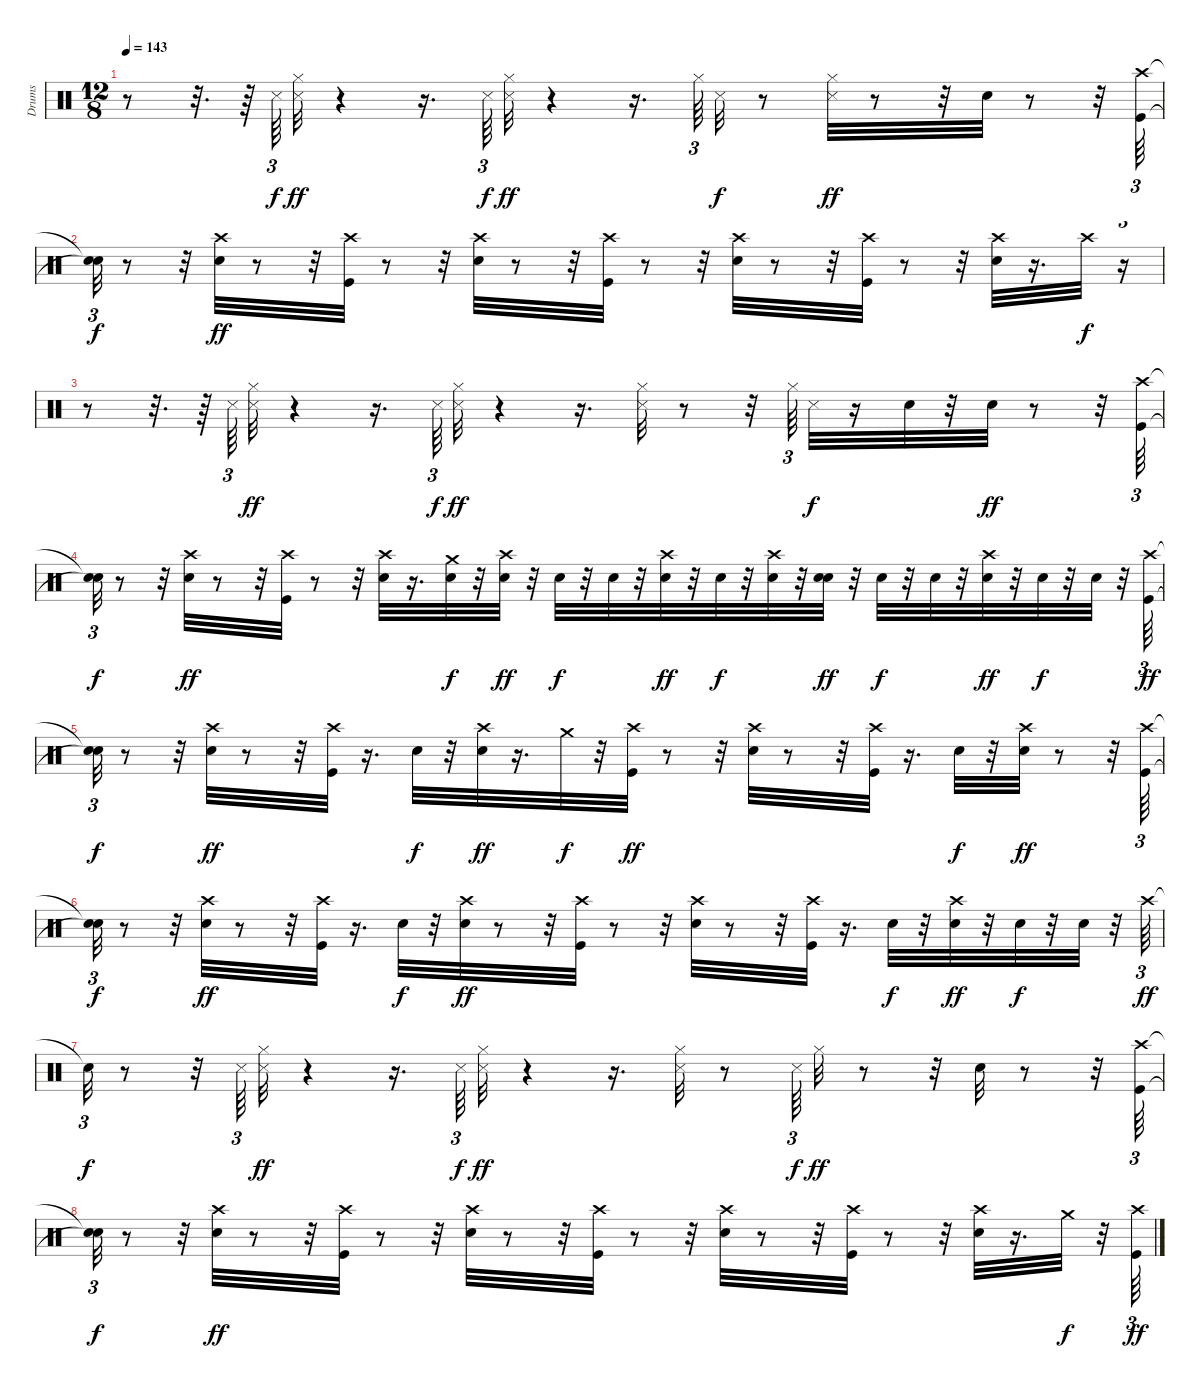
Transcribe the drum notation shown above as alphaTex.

\track ("Drums" "Drums") {instrument percussion}
\staff {score}
\articulation defaults
\ts (12 8)
\tempo 143
\clef neutral
\ks c
r.8{dy f} r.32{d} r.64 "Metronome (hit)".64{tu (3 2)} ("Metronome (hit)" "Hi-Hat (closed)").32{dy ff} r.4 r.16{d} "Metronome (hit)".64{tu (3 2) dy f} ("Metronome (hit)" "Hi-Hat (closed)").32{dy ff} r.4 r.16{d} "Hi-Hat (closed)".64{tu (3 2)} "Metronome (hit)".32{dy f} r.8 ("Metronome (hit)" "Hi-Hat (closed)").32{dy ff} r.8 r.32 "Snare (hit) 2".32 r.8 r.32 ("Crash high (hit)" "Kick (hit)").64{tu (3 2)} |
("Snare (hit)"{t} "Snare (hit)"{t}).32{tu (3 2) dy f} r.8 r.32 ("Crash high (hit)" "Snare (hit) 2").32{dy ff} r.8 r.32 ("Crash high (hit)" "Kick (hit)").32 r.8 r.32 ("Crash high (hit)" "Snare (hit) 2").32 r.8 r.32 ("Crash high (hit)" "Kick (hit)").32 r.8 r.32 ("Crash high (hit)" "Snare (hit) 2").32 r.8 r.32 ("Crash high (hit)" "Kick (hit)").32 r.8 r.32 ("Crash high (hit)" "Snare (hit) 2").32 r.16{d} "Crash high (hit)".32{dy f} r.16{tu (3 2)} |
r.8 r.32{d} r.64 "Metronome (hit)".64{tu (3 2)} ("Metronome (hit)" "Hi-Hat (closed)").32{dy ff} r.4 r.16{d} "Metronome (hit)".64{tu (3 2) dy f} ("Metronome (hit)" "Hi-Hat (closed)").32{dy ff} r.4 r.16{d} ("Metronome (hit)" "Hi-Hat (closed)").32 r.8 r.32 "Hi-Hat (closed)".64{tu (3 2)} "Metronome (hit)".32{dy f} r.16 "Snare (hit) 2".32 r.32 "Snare (hit) 2".32{dy ff} r.8 r.32 ("Crash high (hit)" "Kick (hit)").64{tu (3 2)} |
("Snare (hit)"{t} "Snare (hit)"{t}).32{tu (3 2) dy f} r.8 r.32 ("Crash high (hit)" "Snare (hit) 2").32{dy ff} r.8 r.32 ("Crash high (hit)" "Kick (hit)").32 r.8 r.32 ("Crash high (hit)" "Snare (hit) 2").32 r.16{d} ("Crash medium (hit)" "Snare (hit) 2").32{dy f} r.32 ("Electric Snare (hit)" "Crash high (hit)").32{dy ff} r.32 "Snare (hit) 2".32{dy f} r.32 "Snare (hit) 2".32 r.32 ("Snare (hit) 2" "Crash high (hit)").32{dy ff} r.32 "Snare (hit) 2".32{dy f} r.32 ("Snare (hit) 2" "Crash high (hit)").32 r.32 ("Snare (hit) 2" "Electric Snare (hit)").32{dy ff} r.32 "Snare (hit) 2".32{dy f} r.32 "Snare (hit) 2".32 r.32 ("Snare (hit) 2" "Crash high (hit)").32{dy ff} r.32 "Snare (hit) 2".32{dy f} r.32 "Snare (hit) 2".32 r.32 ("Kick (hit)" "Crash high (hit)").64{tu (3 2) dy ff} |
("Snare (hit)"{t} "Snare (hit)"{t}).32{tu (3 2) dy f} r.8 r.32 ("Snare (hit) 2" "Crash high (hit)").32{dy ff} r.8 r.32 ("Kick (hit)" "Crash high (hit)").32 r.16{d} "Snare (hit) 2".32{dy f} r.32 ("Snare (hit) 2" "Crash high (hit)").32{dy ff} r.16{d} "Crash medium (hit)".32{dy f} r.32 ("Kick (hit)" "Crash high (hit)").32{dy ff} r.8 r.32 ("Snare (hit) 2" "Crash high (hit)").32 r.8 r.32 ("Kick (hit)" "Crash high (hit)").32 r.16{d} "Snare (hit) 2".32{dy f} r.32 ("Snare (hit) 2" "Crash high (hit)").32{dy ff} r.8 r.32 ("Kick (hit)" "Crash high (hit)").64{tu (3 2)} |
("Snare (hit)"{t} "Snare (hit)"{t}).32{tu (3 2) dy f} r.8 r.32 ("Snare (hit) 2" "Crash high (hit)").32{dy ff} r.8 r.32 ("Kick (hit)" "Crash high (hit)").32 r.16{d} "Snare (hit) 2".32{dy f} r.32 ("Snare (hit) 2" "Crash high (hit)").32{dy ff} r.8 r.32 ("Kick (hit)" "Crash high (hit)").32 r.8 r.32 ("Snare (hit) 2" "Crash high (hit)").32 r.8 r.32 ("Kick (hit)" "Crash high (hit)").32 r.16{d} "Electric Snare (hit)".32{dy f} r.32 ("Snare (hit) 2" "Crash high (hit)").32{dy ff} r.32 "Snare (hit) 2".32{dy f} r.32 "Snare (hit) 2".32 r.32 "Crash high (hit)".64{tu (3 2) dy ff} |
"Snare (hit)"{t}.32{tu (3 2) dy f} r.8 r.32 "Metronome (hit)".64{tu (3 2)} ("Metronome (hit)" "Hi-Hat (closed)").32{dy ff} r.4 r.16{d} "Metronome (hit)".64{tu (3 2) dy f} ("Metronome (hit)" "Hi-Hat (closed)").32{dy ff} r.4 r.16{d} ("Metronome (hit)" "Hi-Hat (closed)").32 r.8 "Metronome (hit)".64{tu (3 2) dy f} "Hi-Hat (closed)".32{dy ff} r.8 r.32 "Snare (hit) 2".32 r.8 r.32 ("Crash high (hit)" "Kick (hit)").64{tu (3 2)} |
("Snare (hit)"{t} "Snare (hit)"{t}).32{tu (3 2) dy f} r.8 r.32 ("Crash high (hit)" "Snare (hit) 2").32{dy ff} r.8 r.32 ("Crash high (hit)" "Kick (hit)").32 r.8 r.32 ("Crash high (hit)" "Snare (hit) 2").32 r.8 r.32 ("Crash high (hit)" "Kick (hit)").32 r.8 r.32 ("Crash high (hit)" "Snare (hit) 2").32 r.8 r.32 ("Crash high (hit)" "Kick (hit)").32 r.8 r.32 ("Crash high (hit)" "Snare (hit) 2").32 r.16{d} "Crash medium (hit)".32{dy f} r.32 ("Kick (hit)" "Crash high (hit)").64{tu (3 2) dy ff}
